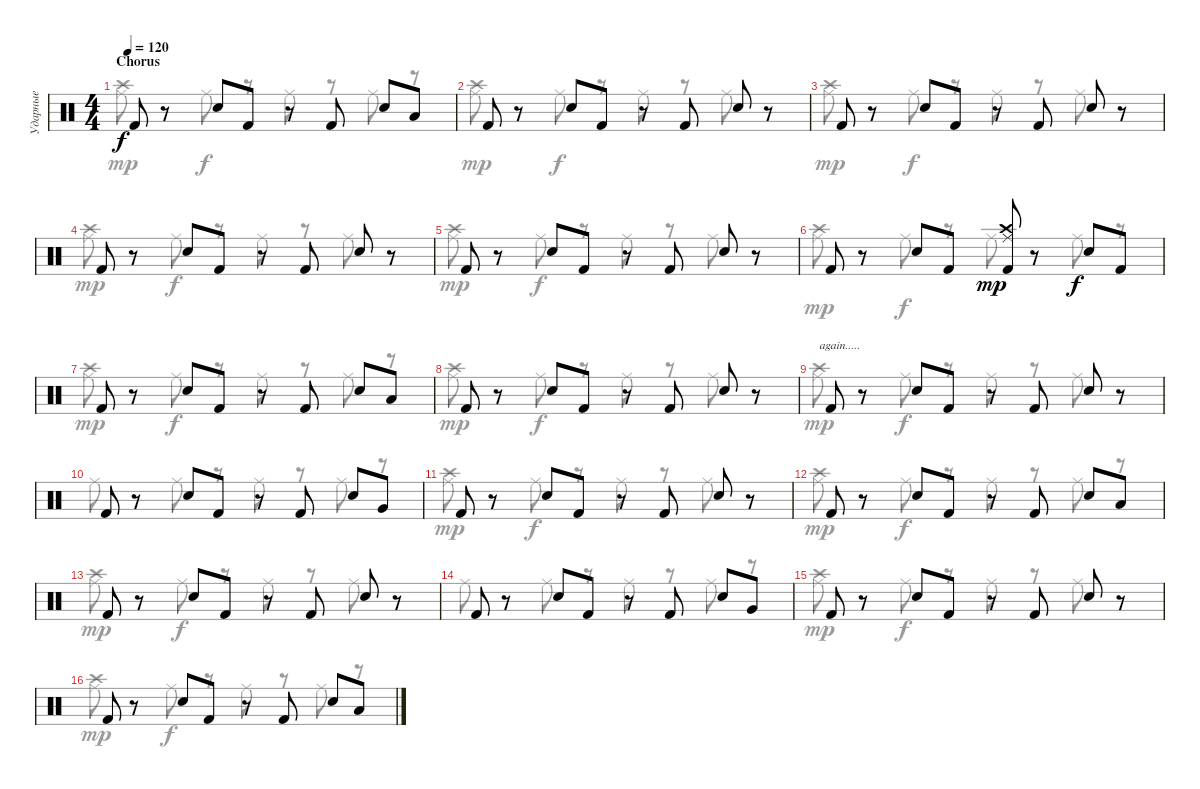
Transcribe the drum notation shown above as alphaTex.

\track ("Ударные" "Ударные") {instrument percussion}
\staff {score}
\articulation defaults
\voice
\ts (4 4)
\section ("" "Chorus")
\tempo 120
\clef neutral
\ks c "Kick (hit) 2".8{dy f}
r.8 "Snare (hit) 2".8 "Kick (hit) 2".8 r.8 "Kick (hit) 2".8 "Snare (hit) 2".8 "Low Tom (hit)".8 |
"Kick (hit) 2".8 r.8 "Snare (hit) 2".8 "Kick (hit) 2".8 r.8 "Kick (hit) 2".8 "Snare (hit) 2".8 r.8 |
"Kick (hit) 2".8 r.8 "Snare (hit) 2".8 "Kick (hit) 2".8 r.8 "Kick (hit) 2".8 "Snare (hit) 2".8 r.8 |
"Kick (hit) 2".8 r.8 "Snare (hit) 2".8 "Kick (hit) 2".8 r.8 "Kick (hit) 2".8 "Snare (hit) 2".8 r.8 |
"Kick (hit) 2".8 r.8 "Snare (hit) 2".8 "Kick (hit) 2".8 r.8 "Kick (hit) 2".8 "Snare (hit) 2".8 r.8 |
"Kick (hit) 2".8 r.8 "Snare (hit) 2".8 "Kick (hit) 2".8 ("Ride (middle)" "Crash high (hit)" "Kick (hit) 2").8{dy mp} r.8 "Snare (hit) 2".8{dy f} "Kick (hit) 2".8 |
"Kick (hit) 2".8 r.8 "Snare (hit) 2".8 "Kick (hit) 2".8 r.8 "Kick (hit) 2".8 "Snare (hit) 2".8 "Low Tom (hit)".8 |
"Kick (hit) 2".8 r.8 "Snare (hit) 2".8 "Kick (hit) 2".8 r.8 "Kick (hit) 2".8 "Snare (hit) 2".8 r.8 |
"Kick (hit) 2".8{txt "again....."} r.8 "Snare (hit) 2".8 "Kick (hit) 2".8 r.8 "Kick (hit) 2".8 "Snare (hit) 2".8 r.8 |
"Kick (hit) 2".8 r.8 "Snare (hit) 2".8 "Kick (hit) 2".8 r.8 "Kick (hit) 2".8 "Snare (hit) 2".8 "Very Low Tom (hit)".8 |
"Kick (hit) 2".8 r.8 "Snare (hit) 2".8 "Kick (hit) 2".8 r.8 "Kick (hit) 2".8 "Snare (hit) 2".8 r.8 |
"Kick (hit) 2".8 r.8 "Snare (hit) 2".8 "Kick (hit) 2".8 r.8 "Kick (hit) 2".8 "Snare (hit) 2".8 "Low Tom (hit)".8 |
"Kick (hit) 2".8 r.8 "Snare (hit) 2".8 "Kick (hit) 2".8 r.8 "Kick (hit) 2".8 "Snare (hit) 2".8 r.8 |
"Kick (hit) 2".8 r.8 "Snare (hit) 2".8 "Kick (hit) 2".8 r.8 "Kick (hit) 2".8 "Snare (hit) 2".8 "Very Low Tom (hit)".8 |
"Kick (hit) 2".8 r.8 "Snare (hit) 2".8 "Kick (hit) 2".8 r.8 "Kick (hit) 2".8 "Snare (hit) 2".8 r.8 |
"Kick (hit) 2".8 r.8 "Snare (hit) 2".8 "Kick (hit) 2".8 r.8 "Kick (hit) 2".8 "Snare (hit) 2".8 "Low Tom (hit)".8
\voice
\clef neutral
\ottava regular
\simile none
\ks c
("Ride (middle)" "Crash high (hit)").8{dy mp} r.8 "Ride (middle)".8{dy f} r.8 "Ride (middle)".8 r.8 "Ride (middle)".8 r.8 |
("Ride (middle)" "Crash high (hit)").8{dy mp} r.8 "Ride (middle)".8{dy f} r.8 "Ride (middle)".8 r.8 "Ride (middle)".8 r.8 |
("Ride (middle)" "Crash high (hit)").8{dy mp} r.8 "Ride (middle)".8{dy f} r.8 "Ride (middle)".8 r.8 "Ride (middle)".8 r.8 |
("Ride (middle)" "Crash high (hit)").8{dy mp} r.8 "Ride (middle)".8{dy f} r.8 "Ride (middle)".8 r.8 "Ride (middle)".8 r.8 |
("Ride (middle)" "Crash high (hit)").8{dy mp} r.8 "Ride (middle)".8{dy f} r.8 "Ride (middle)".8 r.8 "Ride (middle)".8 r.8 |
("Ride (middle)" "Crash high (hit)").8{dy mp} r.8 "Ride (middle)".8{dy f} r.8 "Ride (middle)".8 r.8 "Ride (middle)".8 r.8 |
("Ride (middle)" "Crash high (hit)").8{dy mp} r.8 "Ride (middle)".8{dy f} r.8 "Ride (middle)".8 r.8 "Ride (middle)".8 r.8 |
("Ride (middle)" "Crash high (hit)").8{dy mp} r.8 "Ride (middle)".8{dy f} r.8 "Ride (middle)".8 r.8 "Ride (middle)".8 r.8 |
("Ride (middle)" "Crash high (hit)").8{dy mp} r.8 "Ride (middle)".8{dy f} r.8 "Ride (middle)".8 r.8 "Ride (middle)".8 r.8 |
"Ride (middle)".8 r.8 "Ride (middle)".8 r.8 "Ride (middle)".8 r.8 "Ride (middle)".8 r.8 |
("Ride (middle)" "Crash high (hit)").8{dy mp} r.8 "Ride (middle)".8{dy f} r.8 "Ride (middle)".8 r.8 "Ride (middle)".8 r.8 |
("Ride (middle)" "Crash high (hit)").8{dy mp} r.8 "Ride (middle)".8{dy f} r.8 "Ride (middle)".8 r.8 "Ride (middle)".8 r.8 |
("Ride (middle)" "Crash high (hit)").8{dy mp} r.8 "Ride (middle)".8{dy f} r.8 "Ride (middle)".8 r.8 "Ride (middle)".8 r.8 |
"Ride (middle)".8 r.8 "Ride (middle)".8 r.8 "Ride (middle)".8 r.8 "Ride (middle)".8 r.8 |
("Ride (middle)" "Crash high (hit)").8{dy mp} r.8 "Ride (middle)".8{dy f} r.8 "Ride (middle)".8 r.8 "Ride (middle)".8 r.8 |
("Ride (middle)" "Crash high (hit)").8{dy mp} r.8 "Ride (middle)".8{dy f} r.8 "Ride (middle)".8 r.8 "Ride (middle)".8 r.8
